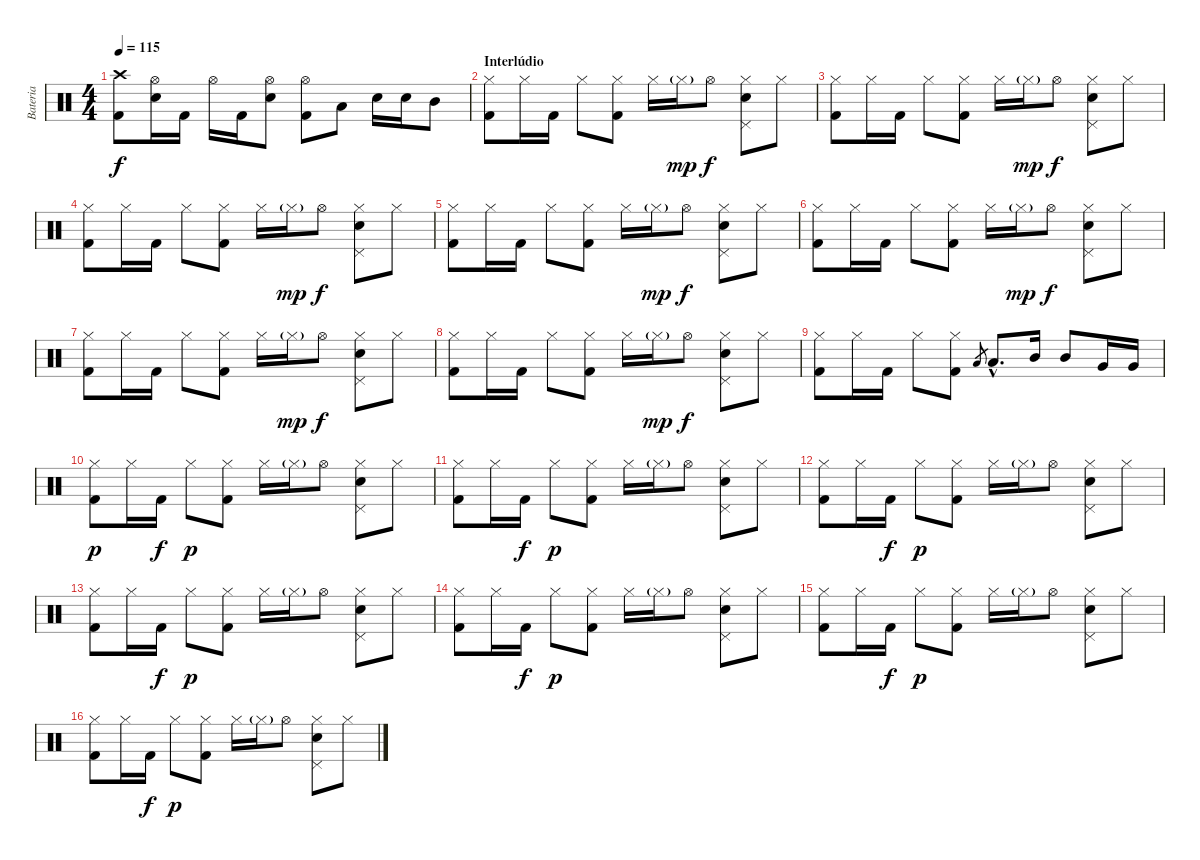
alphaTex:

\track ("Bateria" "Bateria") {instrument percussion}
\staff {score}
\articulation defaults
\ts (4 4)
\tempo 115
\clef neutral
\ks c
("Crash high (hit)" "Kick (hit) 2").8{dy f} ("Hi-Hat (open)" "Electric Snare (hit)").16 "Kick (hit) 2".16 "Hi-Hat (open)".16 "Kick (hit) 2".16 ("Hi-Hat (open)" "Electric Snare (hit)").8 ("Hi-Hat (open)" "Kick (hit) 2").8 "Low Tom (hit)".8 "Electric Snare (hit)".16 "Electric Snare (hit)".16 "Mid Tom (hit)".8 |
\section ("" "Interlúdio")
("Hi-Hat (closed)" "Kick (hit) 2").8 "Hi-Hat (closed)".16 "Kick (hit) 2".16 "Hi-Hat (closed)".8 ("Hi-Hat (closed)" "Kick (hit) 2").8 "Hi-Hat (closed)".16 "Hi-Hat (closed)"{g}.16{dy mp} "Hi-Hat (open)".8{dy f} ("Pedal Hi-Hat (hit)" "Hi-Hat (closed)" "Electric Snare (hit)").8 "Hi-Hat (closed)".8 |
("Hi-Hat (closed)" "Kick (hit) 2").8 "Hi-Hat (closed)".16 "Kick (hit) 2".16 "Hi-Hat (closed)".8 ("Hi-Hat (closed)" "Kick (hit) 2").8 "Hi-Hat (closed)".16 "Hi-Hat (closed)"{g}.16{dy mp} "Hi-Hat (open)".8{dy f} ("Pedal Hi-Hat (hit)" "Hi-Hat (closed)" "Electric Snare (hit)").8 "Hi-Hat (closed)".8 |
("Hi-Hat (closed)" "Kick (hit) 2").8 "Hi-Hat (closed)".16 "Kick (hit) 2".16 "Hi-Hat (closed)".8 ("Hi-Hat (closed)" "Kick (hit) 2").8 "Hi-Hat (closed)".16 "Hi-Hat (closed)"{g}.16{dy mp} "Hi-Hat (open)".8{dy f} ("Pedal Hi-Hat (hit)" "Hi-Hat (closed)" "Electric Snare (hit)").8 "Hi-Hat (closed)".8 |
("Hi-Hat (closed)" "Kick (hit) 2").8 "Hi-Hat (closed)".16 "Kick (hit) 2".16 "Hi-Hat (closed)".8 ("Hi-Hat (closed)" "Kick (hit) 2").8 "Hi-Hat (closed)".16 "Hi-Hat (closed)"{g}.16{dy mp} "Hi-Hat (open)".8{dy f} ("Pedal Hi-Hat (hit)" "Hi-Hat (closed)" "Electric Snare (hit)").8 "Hi-Hat (closed)".8 |
("Hi-Hat (closed)" "Kick (hit) 2").8 "Hi-Hat (closed)".16 "Kick (hit) 2".16 "Hi-Hat (closed)".8 ("Hi-Hat (closed)" "Kick (hit) 2").8 "Hi-Hat (closed)".16 "Hi-Hat (closed)"{g}.16{dy mp} "Hi-Hat (open)".8{dy f} ("Pedal Hi-Hat (hit)" "Hi-Hat (closed)" "Electric Snare (hit)").8 "Hi-Hat (closed)".8 |
("Hi-Hat (closed)" "Kick (hit) 2").8 "Hi-Hat (closed)".16 "Kick (hit) 2".16 "Hi-Hat (closed)".8 ("Hi-Hat (closed)" "Kick (hit) 2").8 "Hi-Hat (closed)".16 "Hi-Hat (closed)"{g}.16{dy mp} "Hi-Hat (open)".8{dy f} ("Pedal Hi-Hat (hit)" "Hi-Hat (closed)" "Electric Snare (hit)").8 "Hi-Hat (closed)".8 |
("Hi-Hat (closed)" "Kick (hit) 2").8 "Hi-Hat (closed)".16 "Kick (hit) 2".16 "Hi-Hat (closed)".8 ("Hi-Hat (closed)" "Kick (hit) 2").8 "Hi-Hat (closed)".16 "Hi-Hat (closed)"{g}.16{dy mp} "Hi-Hat (open)".8{dy f} ("Pedal Hi-Hat (hit)" "Hi-Hat (closed)" "Electric Snare (hit)").8 "Hi-Hat (closed)".8 |
("Hi-Hat (closed)" "Kick (hit) 2").8 "Hi-Hat (closed)".16 "Kick (hit) 2".16 "Hi-Hat (closed)".8 ("Hi-Hat (closed)" "Kick (hit) 2").8 "Low Tom (hit)".8{gr} "Low Tom (hit)"{hac}.8{d} "Mid Tom (hit)".16 "Mid Tom (hit)".8 "Very Low Tom (hit)".16 "Very Low Tom (hit)".16 |
("Hi-Hat (closed)" "Kick (hit) 2").8{dy p} "Hi-Hat (closed)".16 "Kick (hit) 2".16{dy f} "Hi-Hat (closed)".8{dy p} ("Hi-Hat (closed)" "Kick (hit) 2").8 "Hi-Hat (closed)".16 "Hi-Hat (closed)"{g}.16 "Hi-Hat (open)".8 ("Pedal Hi-Hat (hit)" "Hi-Hat (closed)" "Electric Snare (hit)").8 "Hi-Hat (closed)".8 |
("Hi-Hat (closed)" "Kick (hit) 2").8 "Hi-Hat (closed)".16 "Kick (hit) 2".16{dy f} "Hi-Hat (closed)".8{dy p} ("Hi-Hat (closed)" "Kick (hit) 2").8 "Hi-Hat (closed)".16 "Hi-Hat (closed)"{g}.16 "Hi-Hat (open)".8 ("Pedal Hi-Hat (hit)" "Hi-Hat (closed)" "Electric Snare (hit)").8 "Hi-Hat (closed)".8 |
("Hi-Hat (closed)" "Kick (hit) 2").8 "Hi-Hat (closed)".16 "Kick (hit) 2".16{dy f} "Hi-Hat (closed)".8{dy p} ("Hi-Hat (closed)" "Kick (hit) 2").8 "Hi-Hat (closed)".16 "Hi-Hat (closed)"{g}.16 "Hi-Hat (open)".8 ("Pedal Hi-Hat (hit)" "Hi-Hat (closed)" "Electric Snare (hit)").8 "Hi-Hat (closed)".8 |
("Hi-Hat (closed)" "Kick (hit) 2").8 "Hi-Hat (closed)".16 "Kick (hit) 2".16{dy f} "Hi-Hat (closed)".8{dy p} ("Hi-Hat (closed)" "Kick (hit) 2").8 "Hi-Hat (closed)".16 "Hi-Hat (closed)"{g}.16 "Hi-Hat (open)".8 ("Pedal Hi-Hat (hit)" "Hi-Hat (closed)" "Electric Snare (hit)").8 "Hi-Hat (closed)".8 |
("Hi-Hat (closed)" "Kick (hit) 2").8 "Hi-Hat (closed)".16 "Kick (hit) 2".16{dy f} "Hi-Hat (closed)".8{dy p} ("Hi-Hat (closed)" "Kick (hit) 2").8 "Hi-Hat (closed)".16 "Hi-Hat (closed)"{g}.16 "Hi-Hat (open)".8 ("Pedal Hi-Hat (hit)" "Hi-Hat (closed)" "Electric Snare (hit)").8 "Hi-Hat (closed)".8 |
("Hi-Hat (closed)" "Kick (hit) 2").8 "Hi-Hat (closed)".16 "Kick (hit) 2".16{dy f} "Hi-Hat (closed)".8{dy p} ("Hi-Hat (closed)" "Kick (hit) 2").8 "Hi-Hat (closed)".16 "Hi-Hat (closed)"{g}.16 "Hi-Hat (open)".8 ("Pedal Hi-Hat (hit)" "Hi-Hat (closed)" "Electric Snare (hit)").8 "Hi-Hat (closed)".8 |
("Hi-Hat (closed)" "Kick (hit) 2").8 "Hi-Hat (closed)".16 "Kick (hit) 2".16{dy f} "Hi-Hat (closed)".8{dy p} ("Hi-Hat (closed)" "Kick (hit) 2").8 "Hi-Hat (closed)".16 "Hi-Hat (closed)"{g}.16 "Hi-Hat (open)".8 ("Pedal Hi-Hat (hit)" "Hi-Hat (closed)" "Electric Snare (hit)").8 "Hi-Hat (closed)".8
